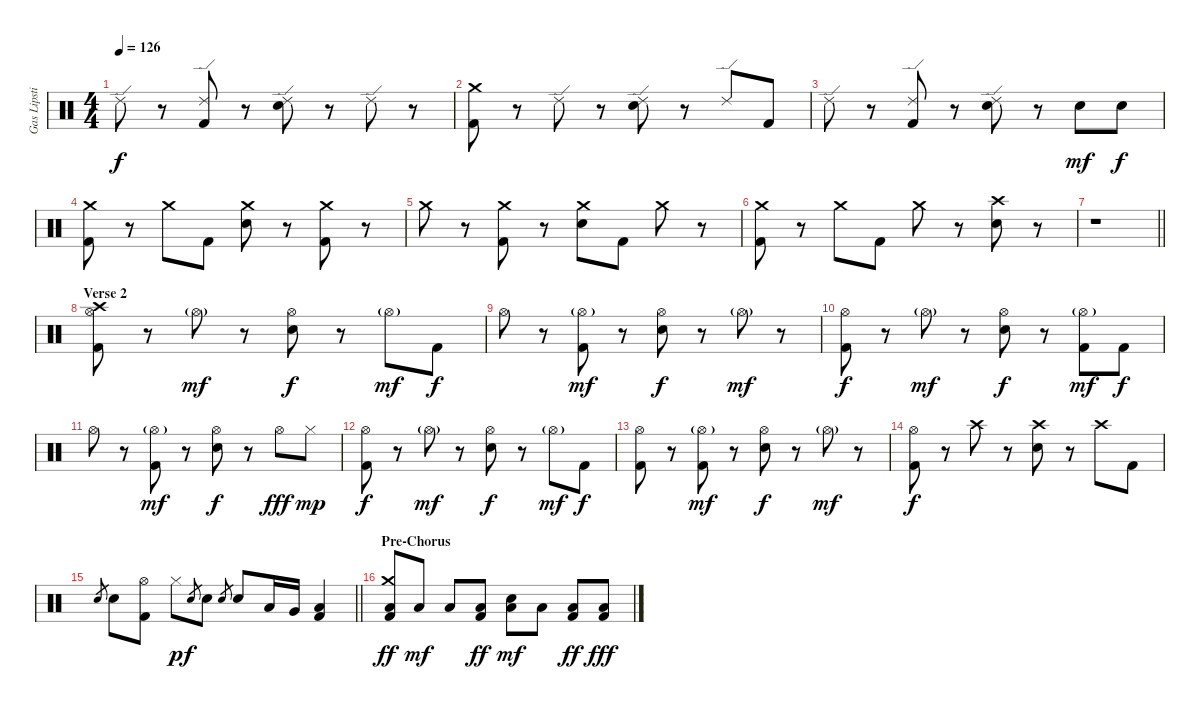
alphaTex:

\track ("Gas Lipstick (Drums)" "Gas Lipsti") {instrument percussion}
\staff {score}
\articulation defaults
\ts (4 4)
\tempo 126
\clef neutral
\ks c "Ride (edge) 2".8{dy f}
r.8 ("Ride (edge) 2" "Kick (hit) 2").8 r.8 ("Ride (edge) 2" "Snare (hit) 2").8 r.8 "Ride (edge) 2".8 r.8 |
("Crash medium (hit)" "Kick (hit) 2").8 r.8 "Ride (edge) 2".8 r.8 ("Ride (edge) 2" "Snare (hit) 2").8 r.8 "Ride (edge) 2".8 "Kick (hit) 2".8 |
"Ride (edge) 2".8 r.8 ("Ride (edge) 2" "Kick (hit) 2").8 r.8 ("Ride (edge) 2" "Snare (hit) 2").8 r.8 "Snare (hit) 2".8{dy mf} "Snare (hit) 2".8{dy f} |
("Crash medium (hit)" "Kick (hit) 2").8 r.8 "Crash medium (hit)".8 "Kick (hit) 2".8 ("Crash medium (hit)" "Snare (hit) 2").8 r.8 ("Crash medium (hit)" "Kick (hit) 2").8 r.8 |
"Crash medium (hit)".8 r.8 ("Crash medium (hit)" "Kick (hit) 2").8 r.8 ("Crash medium (hit)" "Snare (hit) 2").8 "Kick (hit) 2".8 "Crash medium (hit)".8 r.8 |
("Crash medium (hit)" "Kick (hit) 2").8 r.8 "Crash medium (hit)".8 "Kick (hit) 2".8 "Crash medium (hit)".8 r.8 ("Crash high (hit)" "Snare (hit) 2").8 r.8 |
\barLineRight lightlight
r.1 |
\section ("" "Verse 2")
("Crash high (hit)" "Hi-Hat (open)" "Kick (hit) 2").8 r.8 "Hi-Hat (open)"{g}.8{dy mf} r.8 ("Hi-Hat (open)" "Snare (hit) 2").8{dy f} r.8 "Hi-Hat (open)"{g}.8{dy mf} "Kick (hit) 2".8{dy f} |
"Hi-Hat (open)".8 r.8 ("Hi-Hat (open)"{g} "Kick (hit) 2").8{dy mf} r.8 ("Hi-Hat (open)" "Snare (hit) 2").8{dy f} r.8 "Hi-Hat (open)"{g}.8{dy mf} r.8 |
("Hi-Hat (open)" "Kick (hit) 2").8{dy f} r.8 "Hi-Hat (open)"{g}.8{dy mf} r.8 ("Hi-Hat (open)" "Snare (hit) 2").8{dy f} r.8 ("Hi-Hat (open)"{g} "Kick (hit) 2").8{dy mf} "Kick (hit) 2".8{dy f} |
"Hi-Hat (open)".8 r.8 ("Hi-Hat (open)"{g} "Kick (hit) 2").8{dy mf} r.8 ("Hi-Hat (open)" "Snare (hit) 2").8{dy f} r.8 "Hi-Hat (open)".8{dy fff} "Hi-Hat (closed)".8{dy mp} |
("Hi-Hat (open)" "Kick (hit) 2").8{dy f} r.8 "Hi-Hat (open)"{g}.8{dy mf} r.8 ("Hi-Hat (open)" "Snare (hit) 2").8{dy f} r.8 "Hi-Hat (open)"{g}.8{dy mf} "Kick (hit) 2".8{dy f} |
("Hi-Hat (open)" "Kick (hit) 2").8 r.8 ("Hi-Hat (open)"{g} "Kick (hit) 2").8{dy mf} r.8 ("Hi-Hat (open)" "Snare (hit) 2").8{dy f} r.8 "Hi-Hat (open)"{g}.8{dy mf} r.8 |
("Hi-Hat (open)" "Kick (hit) 2").8{dy f} r.8 "Crash high (hit)".8 r.8 ("Crash high (hit)" "Snare (hit) 2").8 r.8 "Crash high (hit)".8 "Kick (hit) 2".8 |
\barLineRight lightlight "Snare (hit) 2".8{gr} "Snare (hit) 2".8
("Hi-Hat (open)" "Kick (hit) 2").8 "Hi-Hat (closed)".8{dy p} "Snare (hit) 2".8{gr dy f} "Snare (hit) 2".8 "Snare (hit) 2".8{gr} "Snare (hit) 2".8 "Low Tom (hit)".16 "Very Low Tom (hit)".16 ("Low Floor Tom (hit)" "Kick (hit) 2").4 |
\section ("" "Pre-Chorus")
("Crash medium (hit)" "Low Floor Tom (hit)" "Kick (hit) 2").8{dy ff} "Low Floor Tom (hit)".8{dy mf} "Low Floor Tom (hit)".8 ("Low Floor Tom (hit)" "Kick (hit) 2").8{dy ff} ("Low Floor Tom (hit)" "Snare (hit) 2").8{dy mf} "Low Floor Tom (hit)".8 ("Low Floor Tom (hit)" "Kick (hit) 2").8{dy ff} ("Low Floor Tom (hit)" "Kick (hit) 2").8{dy fff}
